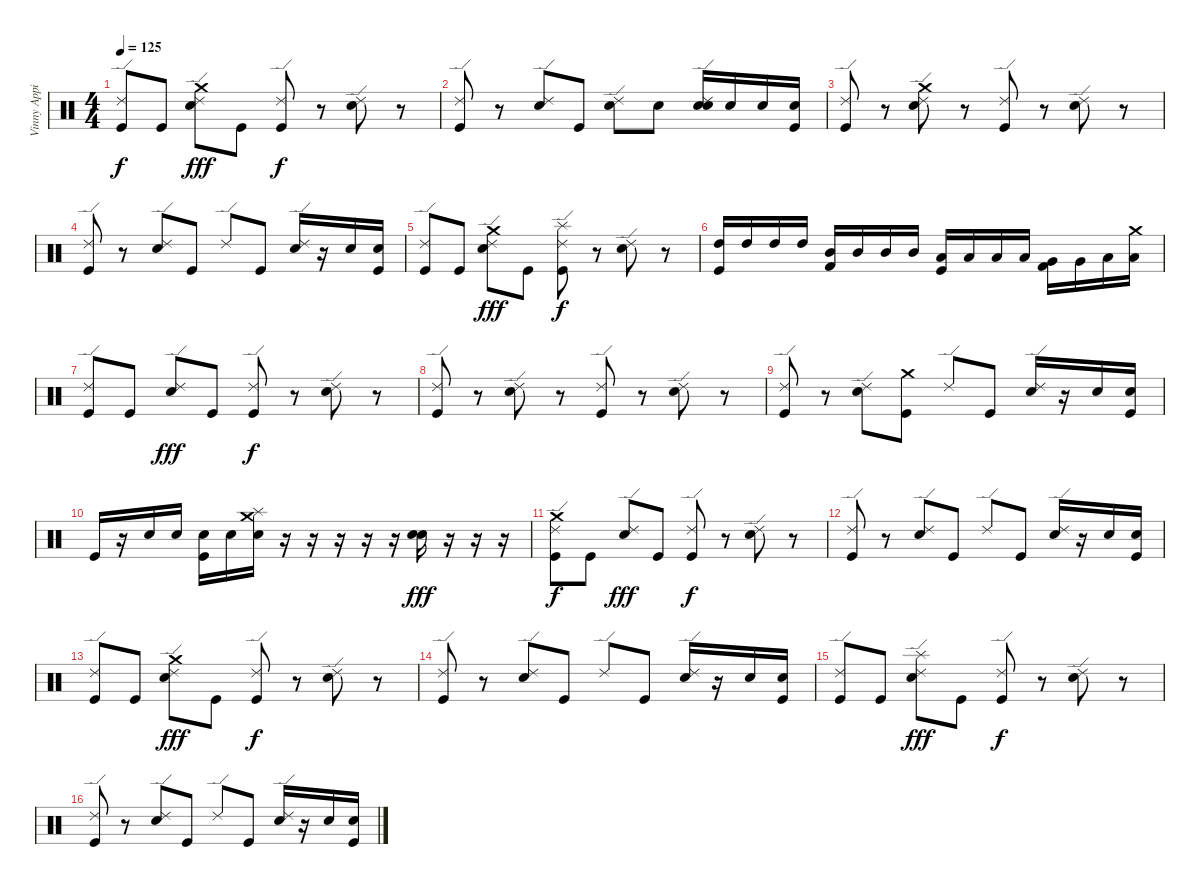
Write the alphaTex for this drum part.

\track ("Vinny Appice - Drums" "Vinny Appi") {instrument percussion}
\staff {score}
\articulation defaults
\ts (4 4)
\tempo 125
\clef neutral
\ks c
("Kick (hit)" "Ride (edge) 2").8{dy f} "Kick (hit)".8 ("Ride (edge) 2" "Snare (hit) 2" "Crash medium (hit)").8{dy fff} "Kick (hit)".8 ("Ride (edge) 2" "Kick (hit)").8{dy f} r.8 ("Ride (edge) 2" "Snare (hit) 2").8 r.8 |
("Ride (edge) 2" "Kick (hit)").8 r.8 ("Ride (edge) 2" "Snare (hit) 2").8 "Kick (hit)".8 ("Ride (edge) 2" "Snare (hit) 2").8 "Snare (hit) 2".8 ("Ride (edge) 2" "Snare (hit) 2" "Snare (hit) 2").16 "Snare (hit) 2".16 "Snare (hit) 2".16 ("Kick (hit)" "Snare (hit) 2").16 |
("Ride (edge) 2" "Kick (hit)").8 r.8 ("Ride (edge) 2" "Snare (hit) 2" "Crash medium (hit)").8 r.8 ("Ride (edge) 2" "Kick (hit)").8 r.8 ("Ride (edge) 2" "Snare (hit) 2").8 r.8 |
("Ride (edge) 2" "Kick (hit)").8 r.8 ("Ride (edge) 2" "Snare (hit) 2").8 "Kick (hit)".8 "Ride (edge) 2".8 "Kick (hit)".8 ("Ride (edge) 2" "Snare (hit) 2").16 r.16 "Snare (hit) 2".16 ("Kick (hit)" "Snare (hit) 2").16 |
("Kick (hit)" "Ride (edge) 2").8 "Kick (hit)".8 ("Ride (edge) 2" "Snare (hit) 2" "Crash medium (hit)").8{dy fff} "Kick (hit)".8 ("Ride (edge) 2" "Kick (hit)" "Splash (hit)").8{dy f} r.8 ("Ride (edge) 2" "Snare (hit) 2").8 r.8 |
("Kick (hit)" "High Tom (hit)").16 "High Tom (hit)".16 "High Tom (hit)".16 "High Tom (hit)".16 ("Kick (hit) 2" "Mid Tom (hit)").16 "Mid Tom (hit)".16 "Mid Tom (hit)".16 "Mid Tom (hit)".16 ("Kick (hit)" "Low Tom (hit)").16 "Low Tom (hit)".16 "Low Tom (hit)".16 "Low Tom (hit)".16 ("Kick (hit) 2" "Very Low Tom (hit)").16 "Very Low Tom (hit)".16 "Low Floor Tom (hit)".16 ("Low Floor Tom (hit)" "Crash medium (hit)").16 |
("Kick (hit)" "Ride (edge) 2").8 "Kick (hit)".8 ("Ride (edge) 2" "Snare (hit) 2").8{dy fff} "Kick (hit)".8 ("Ride (edge) 2" "Kick (hit)").8{dy f} r.8 ("Ride (edge) 2" "Snare (hit) 2").8 r.8 |
("Ride (edge) 2" "Kick (hit)").8 r.8 ("Ride (edge) 2" "Snare (hit) 2").8 r.8 ("Ride (edge) 2" "Kick (hit)").8 r.8 ("Ride (edge) 2" "Snare (hit) 2").8 r.8 |
("Ride (edge) 2" "Kick (hit)").8 r.8 ("Ride (edge) 2" "Snare (hit) 2").8 ("Kick (hit)" "Crash medium (hit)").8 "Ride (edge) 2".8 "Kick (hit)".8 ("Ride (edge) 2" "Snare (hit) 2").16 r.16 "Snare (hit) 2".16 ("Kick (hit)" "Snare (hit) 2").16 |
"Kick (hit)".16 r.16 "Snare (hit) 2".16 "Snare (hit) 2".16 ("Snare (hit) 2" "Kick (hit)").16 "Snare (hit) 2".16 ("Snare (hit) 2" "Splash (hit)" "Crash medium (hit)").16 r.16 r.16 r.16 r.16 r.16 ("Snare (hit) 2" "Snare (hit) 2").16{dy fff} r.16 r.16 r.16 |
("Kick (hit)" "Ride (edge) 2" "Crash medium (hit)").8{dy f} "Kick (hit)".8 ("Ride (edge) 2" "Snare (hit) 2").8{dy fff} "Kick (hit)".8 ("Ride (edge) 2" "Kick (hit)").8{dy f} r.8 ("Ride (edge) 2" "Snare (hit) 2").8 r.8 |
("Ride (edge) 2" "Kick (hit)").8 r.8 ("Ride (edge) 2" "Snare (hit) 2").8 "Kick (hit)".8 "Ride (edge) 2".8 "Kick (hit)".8 ("Ride (edge) 2" "Snare (hit) 2").16 r.16 "Snare (hit) 2".16 ("Kick (hit)" "Snare (hit) 2").16 |
("Kick (hit)" "Ride (edge) 2").8 "Kick (hit)".8 ("Ride (edge) 2" "Snare (hit) 2" "Crash medium (hit)").8{dy fff} "Kick (hit)".8 ("Ride (edge) 2" "Kick (hit)").8{dy f} r.8 ("Ride (edge) 2" "Snare (hit) 2").8 r.8 |
("Ride (edge) 2" "Kick (hit)").8 r.8 ("Ride (edge) 2" "Snare (hit) 2").8 "Kick (hit)".8 "Ride (edge) 2".8 "Kick (hit)".8 ("Ride (edge) 2" "Snare (hit) 2").16 r.16 "Snare (hit) 2".16 ("Kick (hit)" "Snare (hit) 2").16 |
("Kick (hit)" "Ride (edge) 2").8 "Kick (hit)".8 ("Ride (edge) 2" "Snare (hit) 2" "Splash (hit)").8{dy fff} "Kick (hit)".8 ("Ride (edge) 2" "Kick (hit)").8{dy f} r.8 ("Ride (edge) 2" "Snare (hit) 2").8 r.8 |
("Ride (edge) 2" "Kick (hit)").8 r.8 ("Ride (edge) 2" "Snare (hit) 2").8 "Kick (hit)".8 "Ride (edge) 2".8 "Kick (hit)".8 ("Ride (edge) 2" "Snare (hit) 2").16 r.16 "Snare (hit) 2".16 ("Kick (hit)" "Snare (hit) 2").16
